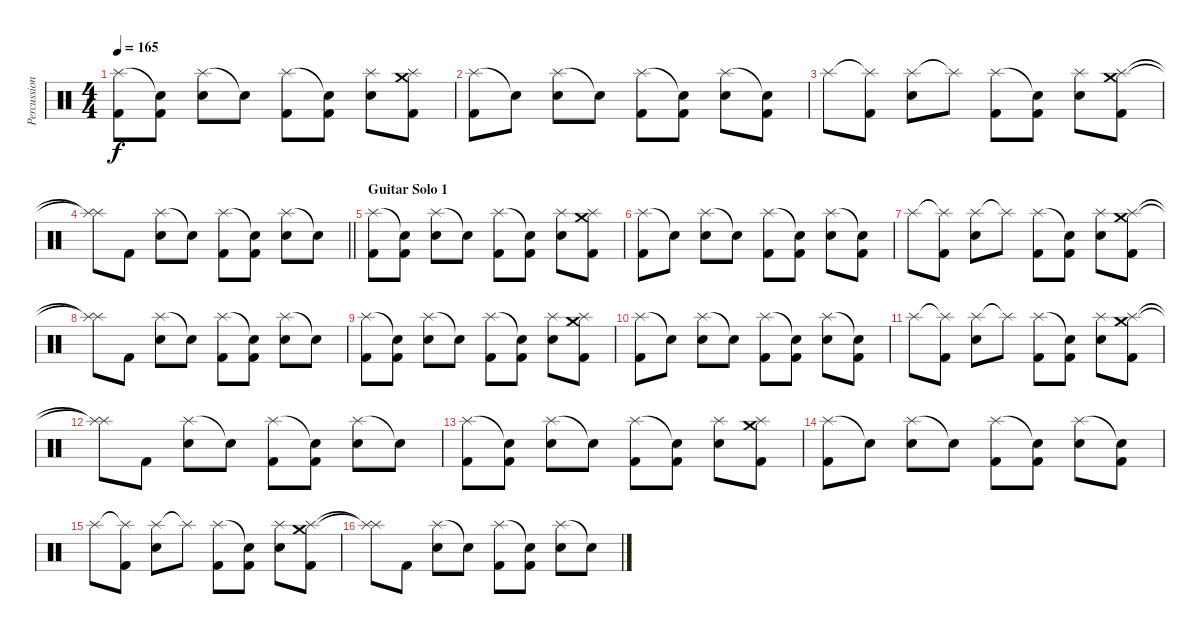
\track ("Percussion" "Percussion") {instrument percussion}
\staff {score}
\articulation defaults
\ts (4 4)
\tempo 165
\clef neutral
\ks c
("Splash (hit)" "Kick (hit) 2").8{dy f} ("Snare (hit)"{t} "Kick (hit) 2").8 ("Splash (hit)" "Electric Snare (hit)").8 "Snare (hit)"{t}.8 ("Splash (hit)" "Kick (hit) 2").8 ("Snare (hit)"{t} "Kick (hit) 2").8 ("Splash (hit)" "Electric Snare (hit)").8 ("Crash medium (hit)" "Splash (hit)" "Kick (hit) 2").8 |
("Splash (hit)" "Kick (hit) 2").8 "Snare (hit)"{t}.8 ("Splash (hit)" "Electric Snare (hit)").8 "Snare (hit)"{t}.8 ("Splash (hit)" "Kick (hit) 2").8 ("Snare (hit)"{t} "Kick (hit) 2").8 ("Splash (hit)" "Electric Snare (hit)").8 ("Snare (hit)"{t} "Kick (hit) 2").8 |
"Splash (hit)".8 ("Splash (hit)"{t} "Kick (hit) 2").8 ("Splash (hit)" "Electric Snare (hit)").8 "Splash (hit)"{t}.8 ("Splash (hit)" "Kick (hit) 2").8 ("Snare (hit)"{t} "Kick (hit) 2").8 ("Splash (hit)" "Electric Snare (hit)").8 ("Crash medium (hit)" "Splash (hit)" "Kick (hit) 2").8 |
\barLineRight lightlight
("Splash (hit)"{t} "Splash (hit)"{t}).8 "Kick (hit) 2".8 ("Splash (hit)" "Electric Snare (hit)").8 "Snare (hit)"{t}.8 ("Splash (hit)" "Kick (hit) 2").8 ("Snare (hit)"{t} "Kick (hit) 2").8 ("Splash (hit)" "Electric Snare (hit)").8 "Snare (hit)"{t}.8 |
\section ("" "Guitar Solo 1")
("Splash (hit)" "Kick (hit) 2").8 ("Snare (hit)"{t} "Kick (hit) 2").8 ("Splash (hit)" "Electric Snare (hit)").8 "Snare (hit)"{t}.8 ("Splash (hit)" "Kick (hit) 2").8 ("Snare (hit)"{t} "Kick (hit) 2").8 ("Splash (hit)" "Electric Snare (hit)").8 ("Crash medium (hit)" "Splash (hit)" "Kick (hit) 2").8 |
("Splash (hit)" "Kick (hit) 2").8 "Snare (hit)"{t}.8 ("Splash (hit)" "Electric Snare (hit)").8 "Snare (hit)"{t}.8 ("Splash (hit)" "Kick (hit) 2").8 ("Snare (hit)"{t} "Kick (hit) 2").8 ("Splash (hit)" "Electric Snare (hit)").8 ("Snare (hit)"{t} "Kick (hit) 2").8 |
"Splash (hit)".8 ("Splash (hit)"{t} "Kick (hit) 2").8 ("Splash (hit)" "Electric Snare (hit)").8 "Splash (hit)"{t}.8 ("Splash (hit)" "Kick (hit) 2").8 ("Snare (hit)"{t} "Kick (hit) 2").8 ("Splash (hit)" "Electric Snare (hit)").8 ("Crash medium (hit)" "Splash (hit)" "Kick (hit) 2").8 |
("Splash (hit)"{t} "Splash (hit)"{t}).8 "Kick (hit) 2".8 ("Splash (hit)" "Electric Snare (hit)").8 "Snare (hit)"{t}.8 ("Splash (hit)" "Kick (hit) 2").8 ("Snare (hit)"{t} "Kick (hit) 2").8 ("Splash (hit)" "Electric Snare (hit)").8 "Snare (hit)"{t}.8 |
("Splash (hit)" "Kick (hit) 2").8 ("Snare (hit)"{t} "Kick (hit) 2").8 ("Splash (hit)" "Electric Snare (hit)").8 "Snare (hit)"{t}.8 ("Splash (hit)" "Kick (hit) 2").8 ("Snare (hit)"{t} "Kick (hit) 2").8 ("Splash (hit)" "Electric Snare (hit)").8 ("Crash medium (hit)" "Splash (hit)" "Kick (hit) 2").8 |
("Splash (hit)" "Kick (hit) 2").8 "Snare (hit)"{t}.8 ("Splash (hit)" "Electric Snare (hit)").8 "Snare (hit)"{t}.8 ("Splash (hit)" "Kick (hit) 2").8 ("Snare (hit)"{t} "Kick (hit) 2").8 ("Splash (hit)" "Electric Snare (hit)").8 ("Snare (hit)"{t} "Kick (hit) 2").8 |
"Splash (hit)".8 ("Splash (hit)"{t} "Kick (hit) 2").8 ("Splash (hit)" "Electric Snare (hit)").8 "Splash (hit)"{t}.8 ("Splash (hit)" "Kick (hit) 2").8 ("Snare (hit)"{t} "Kick (hit) 2").8 ("Splash (hit)" "Electric Snare (hit)").8 ("Crash medium (hit)" "Splash (hit)" "Kick (hit) 2").8 |
("Splash (hit)"{t} "Splash (hit)"{t}).8 "Kick (hit) 2".8 ("Splash (hit)" "Electric Snare (hit)").8 "Snare (hit)"{t}.8 ("Splash (hit)" "Kick (hit) 2").8 ("Snare (hit)"{t} "Kick (hit) 2").8 ("Splash (hit)" "Electric Snare (hit)").8 "Snare (hit)"{t}.8 |
("Splash (hit)" "Kick (hit) 2").8 ("Snare (hit)"{t} "Kick (hit) 2").8 ("Splash (hit)" "Electric Snare (hit)").8 "Snare (hit)"{t}.8 ("Splash (hit)" "Kick (hit) 2").8 ("Snare (hit)"{t} "Kick (hit) 2").8 ("Splash (hit)" "Electric Snare (hit)").8 ("Crash medium (hit)" "Splash (hit)" "Kick (hit) 2").8 |
("Splash (hit)" "Kick (hit) 2").8 "Snare (hit)"{t}.8 ("Splash (hit)" "Electric Snare (hit)").8 "Snare (hit)"{t}.8 ("Splash (hit)" "Kick (hit) 2").8 ("Snare (hit)"{t} "Kick (hit) 2").8 ("Splash (hit)" "Electric Snare (hit)").8 ("Snare (hit)"{t} "Kick (hit) 2").8 |
"Splash (hit)".8 ("Splash (hit)"{t} "Kick (hit) 2").8 ("Splash (hit)" "Electric Snare (hit)").8 "Splash (hit)"{t}.8 ("Splash (hit)" "Kick (hit) 2").8 ("Snare (hit)"{t} "Kick (hit) 2").8 ("Splash (hit)" "Electric Snare (hit)").8 ("Crash medium (hit)" "Splash (hit)" "Kick (hit) 2").8 |
("Splash (hit)"{t} "Splash (hit)"{t}).8 "Kick (hit) 2".8 ("Splash (hit)" "Electric Snare (hit)").8 "Snare (hit)"{t}.8 ("Splash (hit)" "Kick (hit) 2").8 ("Snare (hit)"{t} "Kick (hit) 2").8 ("Splash (hit)" "Electric Snare (hit)").8 "Snare (hit)"{t}.8
